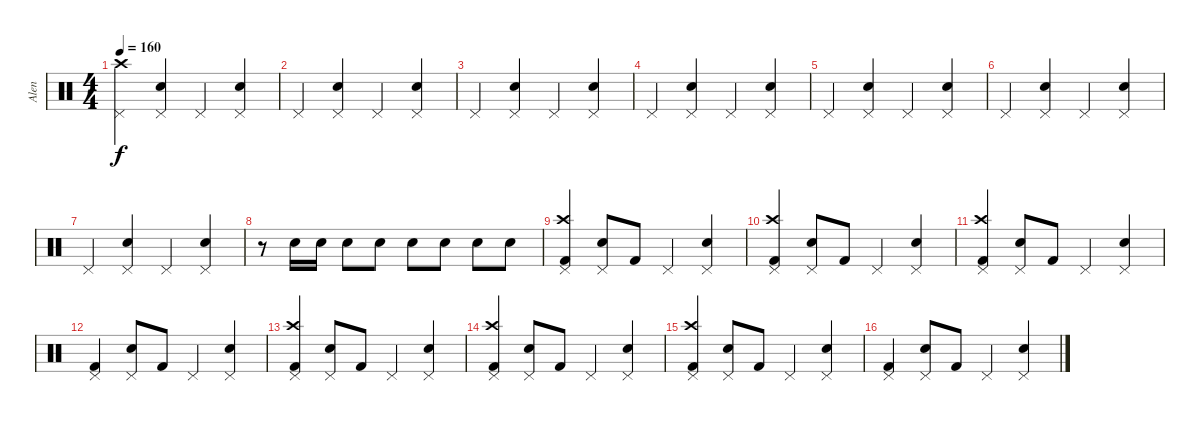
\track ("Alen" "Alen") {instrument percussion}
\staff {score}
\articulation defaults
\ts (4 4)
\tempo 160
\clef neutral
\ks c
("Pedal Hi-Hat (hit)" "Crash high (hit)").4{dy f} ("Pedal Hi-Hat (hit)" "Snare (hit) 2").4 "Pedal Hi-Hat (hit)".4 ("Pedal Hi-Hat (hit)" "Snare (hit) 2").4 |
"Pedal Hi-Hat (hit)".4 ("Pedal Hi-Hat (hit)" "Snare (hit) 2").4 "Pedal Hi-Hat (hit)".4 ("Pedal Hi-Hat (hit)" "Snare (hit) 2").4 |
"Pedal Hi-Hat (hit)".4 ("Pedal Hi-Hat (hit)" "Snare (hit) 2").4 "Pedal Hi-Hat (hit)".4 ("Pedal Hi-Hat (hit)" "Snare (hit) 2").4 |
"Pedal Hi-Hat (hit)".4 ("Pedal Hi-Hat (hit)" "Snare (hit) 2").4 "Pedal Hi-Hat (hit)".4 ("Pedal Hi-Hat (hit)" "Snare (hit) 2").4 |
"Pedal Hi-Hat (hit)".4 ("Pedal Hi-Hat (hit)" "Snare (hit) 2").4 "Pedal Hi-Hat (hit)".4 ("Pedal Hi-Hat (hit)" "Snare (hit) 2").4 |
"Pedal Hi-Hat (hit)".4 ("Pedal Hi-Hat (hit)" "Snare (hit) 2").4 "Pedal Hi-Hat (hit)".4 ("Pedal Hi-Hat (hit)" "Snare (hit) 2").4 |
"Pedal Hi-Hat (hit)".4 ("Pedal Hi-Hat (hit)" "Snare (hit) 2").4 "Pedal Hi-Hat (hit)".4 ("Pedal Hi-Hat (hit)" "Snare (hit) 2").4 |
r.8 "Snare (hit) 2".16 "Snare (hit) 2".16 "Snare (hit) 2".8 "Snare (hit) 2".8 "Snare (hit) 2".8 "Snare (hit) 2".8 "Snare (hit) 2".8 "Snare (hit) 2".8 |
("Crash high (hit)" "Pedal Hi-Hat (hit)" "Kick (hit) 2").4 ("Pedal Hi-Hat (hit)" "Snare (hit) 2").8 "Kick (hit) 2".8 "Pedal Hi-Hat (hit)".4 ("Pedal Hi-Hat (hit)" "Snare (hit) 2").4 |
("Crash high (hit)" "Pedal Hi-Hat (hit)" "Kick (hit) 2").4 ("Pedal Hi-Hat (hit)" "Snare (hit) 2").8 "Kick (hit) 2".8 "Pedal Hi-Hat (hit)".4 ("Pedal Hi-Hat (hit)" "Snare (hit) 2").4 |
("Crash high (hit)" "Pedal Hi-Hat (hit)" "Kick (hit) 2").4 ("Pedal Hi-Hat (hit)" "Snare (hit) 2").8 "Kick (hit) 2".8 "Pedal Hi-Hat (hit)".4 ("Pedal Hi-Hat (hit)" "Snare (hit) 2").4 |
("Pedal Hi-Hat (hit)" "Kick (hit) 2").4 ("Pedal Hi-Hat (hit)" "Snare (hit) 2").8 "Kick (hit) 2".8 "Pedal Hi-Hat (hit)".4 ("Pedal Hi-Hat (hit)" "Snare (hit) 2").4 |
("Crash high (hit)" "Pedal Hi-Hat (hit)" "Kick (hit) 2").4 ("Pedal Hi-Hat (hit)" "Snare (hit) 2").8 "Kick (hit) 2".8 "Pedal Hi-Hat (hit)".4 ("Pedal Hi-Hat (hit)" "Snare (hit) 2").4 |
("Crash high (hit)" "Pedal Hi-Hat (hit)" "Kick (hit) 2").4 ("Pedal Hi-Hat (hit)" "Snare (hit) 2").8 "Kick (hit) 2".8 "Pedal Hi-Hat (hit)".4 ("Pedal Hi-Hat (hit)" "Snare (hit) 2").4 |
("Crash high (hit)" "Pedal Hi-Hat (hit)" "Kick (hit) 2").4 ("Pedal Hi-Hat (hit)" "Snare (hit) 2").8 "Kick (hit) 2".8 "Pedal Hi-Hat (hit)".4 ("Pedal Hi-Hat (hit)" "Snare (hit) 2").4 |
("Pedal Hi-Hat (hit)" "Kick (hit) 2").4 ("Pedal Hi-Hat (hit)" "Snare (hit) 2").8 "Kick (hit) 2".8 "Pedal Hi-Hat (hit)".4 ("Pedal Hi-Hat (hit)" "Snare (hit) 2").4
